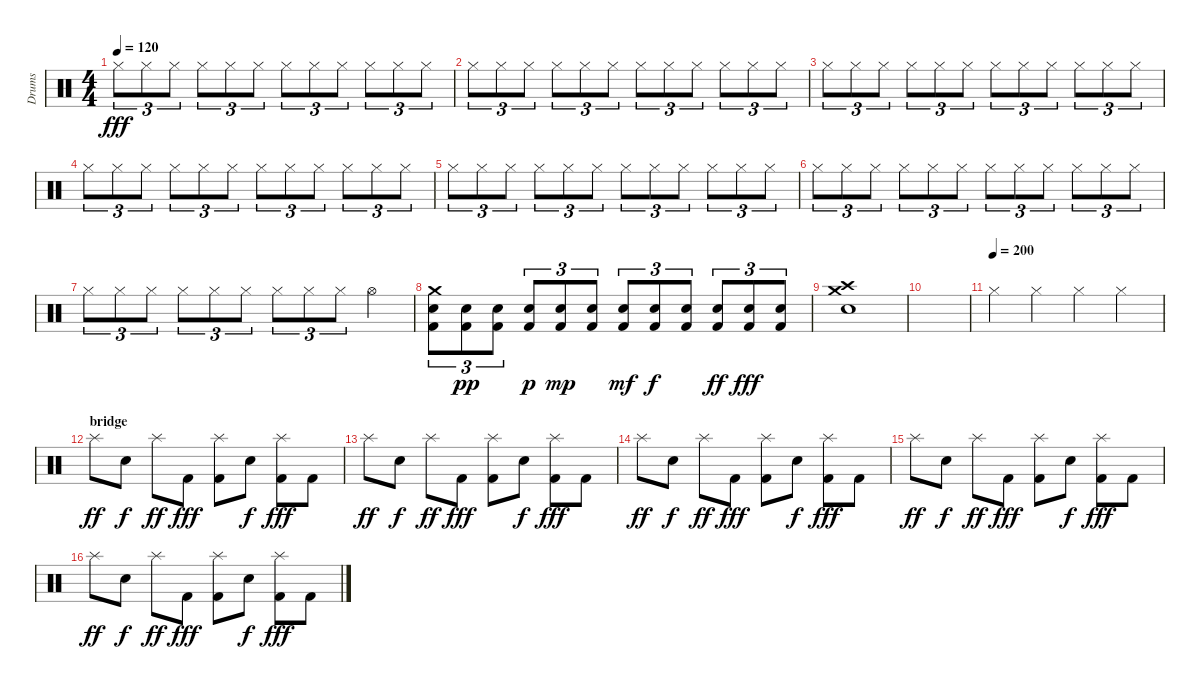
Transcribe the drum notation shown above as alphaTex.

\track ("Drums" "Drums") {instrument percussion}
\staff {score}
\articulation defaults
\ts (4 4)
\tempo 120
\clef neutral
\ks c "Hi-Hat (closed)".8{tu (3 2) dy fff} "Hi-Hat (closed)".8{tu (3 2)} "Hi-Hat (closed)".8{tu (3 2)} "Hi-Hat (closed)".8{tu (3 2)} "Hi-Hat (closed)".8{tu (3 2)} "Hi-Hat (closed)".8{tu (3 2)} "Hi-Hat (closed)".8{tu (3 2)} "Hi-Hat (closed)".8{tu (3 2)} "Hi-Hat (closed)".8{tu (3 2)} "Hi-Hat (closed)".8{tu (3 2)} "Hi-Hat (closed)".8{tu (3 2)} "Hi-Hat (closed)".8{tu (3 2)}
|
"Hi-Hat (closed)".8{tu (3 2)} "Hi-Hat (closed)".8{tu (3 2)} "Hi-Hat (closed)".8{tu (3 2)} "Hi-Hat (closed)".8{tu (3 2)} "Hi-Hat (closed)".8{tu (3 2)} "Hi-Hat (closed)".8{tu (3 2)} "Hi-Hat (closed)".8{tu (3 2)} "Hi-Hat (closed)".8{tu (3 2)} "Hi-Hat (closed)".8{tu (3 2)} "Hi-Hat (closed)".8{tu (3 2)} "Hi-Hat (closed)".8{tu (3 2)} "Hi-Hat (closed)".8{tu (3 2)} |
"Hi-Hat (closed)".8{tu (3 2)} "Hi-Hat (closed)".8{tu (3 2)} "Hi-Hat (closed)".8{tu (3 2)} "Hi-Hat (closed)".8{tu (3 2)} "Hi-Hat (closed)".8{tu (3 2)} "Hi-Hat (closed)".8{tu (3 2)} "Hi-Hat (closed)".8{tu (3 2)} "Hi-Hat (closed)".8{tu (3 2)} "Hi-Hat (closed)".8{tu (3 2)} "Hi-Hat (closed)".8{tu (3 2)} "Hi-Hat (closed)".8{tu (3 2)} "Hi-Hat (closed)".8{tu (3 2)} |
"Hi-Hat (closed)".8{tu (3 2)} "Hi-Hat (closed)".8{tu (3 2)} "Hi-Hat (closed)".8{tu (3 2)} "Hi-Hat (closed)".8{tu (3 2)} "Hi-Hat (closed)".8{tu (3 2)} "Hi-Hat (closed)".8{tu (3 2)} "Hi-Hat (closed)".8{tu (3 2)} "Hi-Hat (closed)".8{tu (3 2)} "Hi-Hat (closed)".8{tu (3 2)} "Hi-Hat (closed)".8{tu (3 2)} "Hi-Hat (closed)".8{tu (3 2)} "Hi-Hat (closed)".8{tu (3 2)} |
"Hi-Hat (closed)".8{tu (3 2)} "Hi-Hat (closed)".8{tu (3 2)} "Hi-Hat (closed)".8{tu (3 2)} "Hi-Hat (closed)".8{tu (3 2)} "Hi-Hat (closed)".8{tu (3 2)} "Hi-Hat (closed)".8{tu (3 2)} "Hi-Hat (closed)".8{tu (3 2)} "Hi-Hat (closed)".8{tu (3 2)} "Hi-Hat (closed)".8{tu (3 2)} "Hi-Hat (closed)".8{tu (3 2)} "Hi-Hat (closed)".8{tu (3 2)} "Hi-Hat (closed)".8{tu (3 2)} |
"Hi-Hat (closed)".8{tu (3 2)} "Hi-Hat (closed)".8{tu (3 2)} "Hi-Hat (closed)".8{tu (3 2)} "Hi-Hat (closed)".8{tu (3 2)} "Hi-Hat (closed)".8{tu (3 2)} "Hi-Hat (closed)".8{tu (3 2)} "Hi-Hat (closed)".8{tu (3 2)} "Hi-Hat (closed)".8{tu (3 2)} "Hi-Hat (closed)".8{tu (3 2)} "Hi-Hat (closed)".8{tu (3 2)} "Hi-Hat (closed)".8{tu (3 2)} "Hi-Hat (closed)".8{tu (3 2)} |
"Hi-Hat (closed)".8{tu (3 2)} "Hi-Hat (closed)".8{tu (3 2)} "Hi-Hat (closed)".8{tu (3 2)} "Hi-Hat (closed)".8{tu (3 2)} "Hi-Hat (closed)".8{tu (3 2)} "Hi-Hat (closed)".8{tu (3 2)} "Hi-Hat (closed)".8{tu (3 2)} "Hi-Hat (closed)".8{tu (3 2)} "Hi-Hat (closed)".8{tu (3 2)} "Hi-Hat (open)".4 |
("Electric Snare (hit)" "Kick (hit) 2" "Crash medium (hit)").8{tu (3 2)} ("Electric Snare (hit)" "Kick (hit) 2").8{tu (3 2) dy pp} ("Electric Snare (hit)" "Kick (hit) 2").8{tu (3 2)} ("Electric Snare (hit)" "Kick (hit) 2").8{tu (3 2) dy p} ("Electric Snare (hit)" "Kick (hit) 2").8{tu (3 2) dy mp} ("Electric Snare (hit)" "Kick (hit) 2").8{tu (3 2)} ("Electric Snare (hit)" "Kick (hit) 2").8{tu (3 2) dy mf} ("Electric Snare (hit)" "Kick (hit) 2").8{tu (3 2) dy f} ("Electric Snare (hit)" "Kick (hit) 2").8{tu (3 2)} ("Electric Snare (hit)" "Kick (hit) 2").8{tu (3 2) dy ff} ("Electric Snare (hit)" "Kick (hit) 2").8{tu (3 2) dy fff} ("Electric Snare (hit)" "Kick (hit) 2").8{tu (3 2)} |
("Electric Snare (hit)" "Crash medium (hit)" "Crash high (hit)").1 |
|
\tempo (200)
"Hi-Hat (closed)".4 "Hi-Hat (closed)".4 "Hi-Hat (closed)".4 "Hi-Hat (closed)".4 |
\section ("" "bridge")
"Splash (hit)".8{dy ff} "Electric Snare (hit)".8{dy f} "Splash (hit)".8{dy ff} "Kick (hit) 2".8{dy fff} ("Splash (hit)" "Kick (hit) 2").8 "Electric Snare (hit)".8{dy f} ("Splash (hit)" "Kick (hit) 2").8{dy fff} "Kick (hit) 2".8 |
"Splash (hit)".8{dy ff} "Electric Snare (hit)".8{dy f} "Splash (hit)".8{dy ff} "Kick (hit) 2".8{dy fff} ("Splash (hit)" "Kick (hit) 2").8 "Electric Snare (hit)".8{dy f} ("Splash (hit)" "Kick (hit) 2").8{dy fff} "Kick (hit) 2".8 |
"Splash (hit)".8{dy ff} "Electric Snare (hit)".8{dy f} "Splash (hit)".8{dy ff} "Kick (hit) 2".8{dy fff} ("Splash (hit)" "Kick (hit) 2").8 "Electric Snare (hit)".8{dy f} ("Splash (hit)" "Kick (hit) 2").8{dy fff} "Kick (hit) 2".8 |
"Splash (hit)".8{dy ff} "Electric Snare (hit)".8{dy f} "Splash (hit)".8{dy ff} "Kick (hit) 2".8{dy fff} ("Splash (hit)" "Kick (hit) 2").8 "Electric Snare (hit)".8{dy f} ("Splash (hit)" "Kick (hit) 2").8{dy fff} "Kick (hit) 2".8 |
"Splash (hit)".8{dy ff} "Electric Snare (hit)".8{dy f} "Splash (hit)".8{dy ff} "Kick (hit) 2".8{dy fff} ("Splash (hit)" "Kick (hit) 2").8 "Electric Snare (hit)".8{dy f} ("Splash (hit)" "Kick (hit) 2").8{dy fff} "Kick (hit) 2".8
